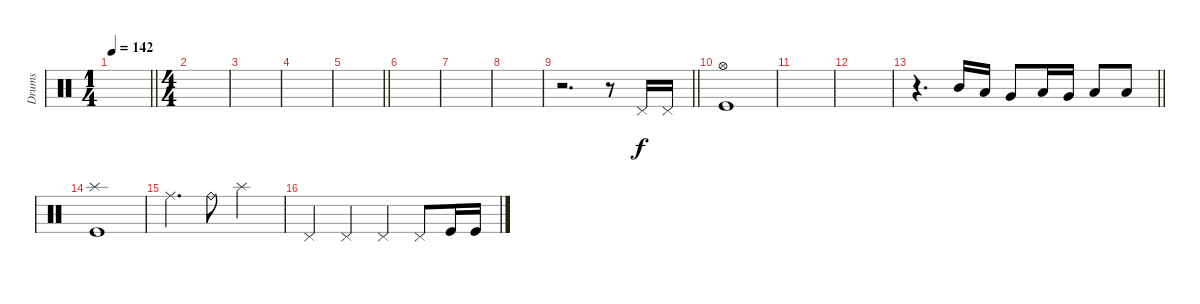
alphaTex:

\track ("Drums" "Drums") {instrument percussion}
\staff
\articulation defaults
\ts (1 4)
\tempo 142
\clef neutral
\barLineRight lightlight
\ks c
|
\ts (4 4)
|
|
|
\barLineRight lightlight
|
|
|
|
\barLineRight lightlight
r.2{d} r.8 "Pedal Hi-Hat (hit)".16 "Pedal Hi-Hat (hit)".16 |
("Hi-Hat (open)" "Kick (hit)").1 |
|
|
\barLineRight lightlight
r.4{d} "Mid Tom (hit)".16 "Low Tom (hit)".16 "Very Low Tom (hit)".8 "Low Tom (hit)".16 "Very Low Tom (hit)".16 "Low Floor Tom (hit)".8 "Low Floor Tom (hit)".8 |
("Splash (hit)" "Kick (hit)").1 |
"Ride (middle)".4{d} "Ride (bell)".8 "Splash (hit)".2 |
"Pedal Hi-Hat (hit)".4 "Pedal Hi-Hat (hit)".4 "Pedal Hi-Hat (hit)".4 "Pedal Hi-Hat (hit)".8 "Kick (hit)".16 "Kick (hit)".16
